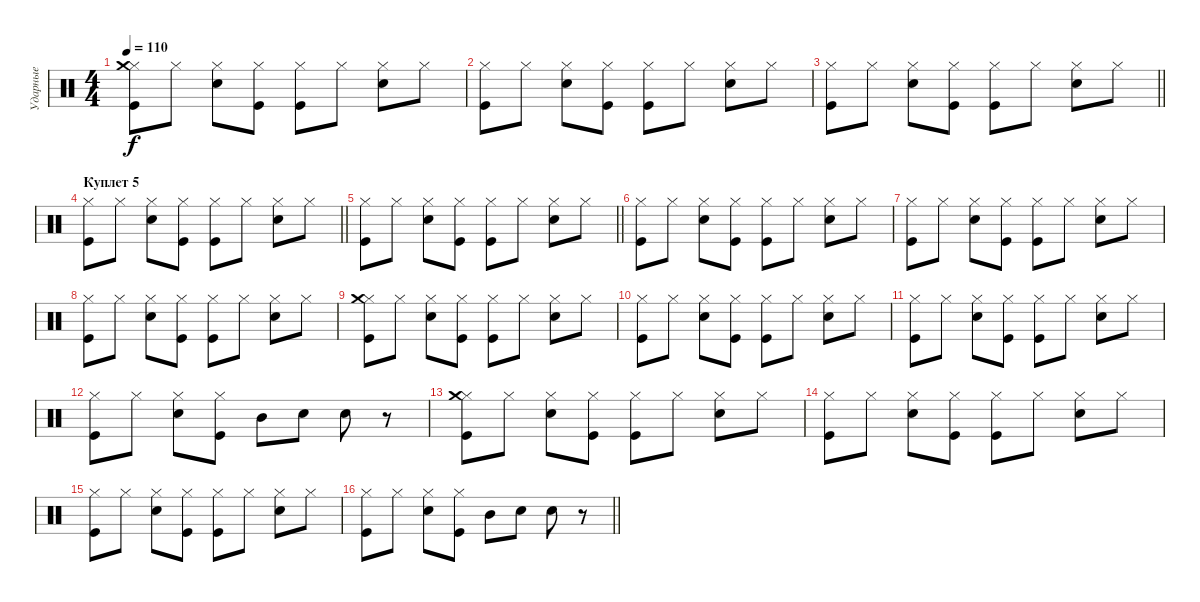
\track ("Ударные" "Ударные") {instrument percussion}
\staff {score}
\articulation defaults
\ts (4 4)
\tempo 110
\clef neutral
\ks c
("Kick (hit)" "Hi-Hat (closed)" "Crash medium (hit)").8{dy f} "Hi-Hat (closed)".8 ("Snare (hit) 2" "Hi-Hat (closed)").8 ("Kick (hit)" "Hi-Hat (closed)").8 ("Hi-Hat (closed)" "Kick (hit)").8 "Hi-Hat (closed)".8 ("Snare (hit) 2" "Hi-Hat (closed)").8 "Hi-Hat (closed)".8 |
("Kick (hit)" "Hi-Hat (closed)").8 "Hi-Hat (closed)".8 ("Snare (hit) 2" "Hi-Hat (closed)").8 ("Kick (hit)" "Hi-Hat (closed)").8 ("Hi-Hat (closed)" "Kick (hit)").8 "Hi-Hat (closed)".8 ("Snare (hit) 2" "Hi-Hat (closed)").8 "Hi-Hat (closed)".8 |
\barLineRight lightlight
("Kick (hit)" "Hi-Hat (closed)").8 "Hi-Hat (closed)".8 ("Snare (hit) 2" "Hi-Hat (closed)").8 ("Kick (hit)" "Hi-Hat (closed)").8 ("Hi-Hat (closed)" "Kick (hit)").8 "Hi-Hat (closed)".8 ("Snare (hit) 2" "Hi-Hat (closed)").8 "Hi-Hat (closed)".8 |
\section ("" "Куплет 5")
\barLineRight lightlight
("Kick (hit)" "Hi-Hat (closed)").8 "Hi-Hat (closed)".8 ("Snare (hit) 2" "Hi-Hat (closed)").8 ("Kick (hit)" "Hi-Hat (closed)").8 ("Hi-Hat (closed)" "Kick (hit)").8 "Hi-Hat (closed)".8 ("Snare (hit) 2" "Hi-Hat (closed)").8 "Hi-Hat (closed)".8 |
\barLineRight lightlight
("Kick (hit)" "Hi-Hat (closed)").8 "Hi-Hat (closed)".8 ("Snare (hit) 2" "Hi-Hat (closed)").8 ("Kick (hit)" "Hi-Hat (closed)").8 ("Hi-Hat (closed)" "Kick (hit)").8 "Hi-Hat (closed)".8 ("Snare (hit) 2" "Hi-Hat (closed)").8 "Hi-Hat (closed)".8 |
("Kick (hit)" "Hi-Hat (closed)").8 "Hi-Hat (closed)".8 ("Snare (hit) 2" "Hi-Hat (closed)").8 ("Kick (hit)" "Hi-Hat (closed)").8 ("Hi-Hat (closed)" "Kick (hit)").8 "Hi-Hat (closed)".8 ("Snare (hit) 2" "Hi-Hat (closed)").8 "Hi-Hat (closed)".8 |
("Kick (hit)" "Hi-Hat (closed)").8 "Hi-Hat (closed)".8 ("Snare (hit) 2" "Hi-Hat (closed)").8 ("Kick (hit)" "Hi-Hat (closed)").8 ("Hi-Hat (closed)" "Kick (hit)").8 "Hi-Hat (closed)".8 ("Snare (hit) 2" "Hi-Hat (closed)").8 "Hi-Hat (closed)".8 |
("Kick (hit)" "Hi-Hat (closed)").8 "Hi-Hat (closed)".8 ("Snare (hit) 2" "Hi-Hat (closed)").8 ("Kick (hit)" "Hi-Hat (closed)").8 ("Hi-Hat (closed)" "Kick (hit)").8 "Hi-Hat (closed)".8 ("Snare (hit) 2" "Hi-Hat (closed)").8 "Hi-Hat (closed)".8 |
("Kick (hit)" "Hi-Hat (closed)" "Crash medium (hit)").8 "Hi-Hat (closed)".8 ("Snare (hit) 2" "Hi-Hat (closed)").8 ("Kick (hit)" "Hi-Hat (closed)").8 ("Hi-Hat (closed)" "Kick (hit)").8 "Hi-Hat (closed)".8 ("Snare (hit) 2" "Hi-Hat (closed)").8 "Hi-Hat (closed)".8 |
("Kick (hit)" "Hi-Hat (closed)").8 "Hi-Hat (closed)".8 ("Snare (hit) 2" "Hi-Hat (closed)").8 ("Kick (hit)" "Hi-Hat (closed)").8 ("Hi-Hat (closed)" "Kick (hit)").8 "Hi-Hat (closed)".8 ("Snare (hit) 2" "Hi-Hat (closed)").8 "Hi-Hat (closed)".8 |
("Kick (hit)" "Hi-Hat (closed)").8 "Hi-Hat (closed)".8 ("Snare (hit) 2" "Hi-Hat (closed)").8 ("Kick (hit)" "Hi-Hat (closed)").8 ("Hi-Hat (closed)" "Kick (hit)").8 "Hi-Hat (closed)".8 ("Snare (hit) 2" "Hi-Hat (closed)").8 "Hi-Hat (closed)".8 |
("Kick (hit)" "Hi-Hat (closed)").8 "Hi-Hat (closed)".8 ("Snare (hit) 2" "Hi-Hat (closed)").8 ("Kick (hit)" "Hi-Hat (closed)").8 "Mid Tom (hit)".8 "Snare (hit) 2".8 "Snare (hit) 2".8 r.8 |
("Kick (hit)" "Hi-Hat (closed)" "Crash medium (hit)").8 "Hi-Hat (closed)".8 ("Snare (hit) 2" "Hi-Hat (closed)").8 ("Kick (hit)" "Hi-Hat (closed)").8 ("Hi-Hat (closed)" "Kick (hit)").8 "Hi-Hat (closed)".8 ("Snare (hit) 2" "Hi-Hat (closed)").8 "Hi-Hat (closed)".8 |
("Kick (hit)" "Hi-Hat (closed)").8 "Hi-Hat (closed)".8 ("Snare (hit) 2" "Hi-Hat (closed)").8 ("Kick (hit)" "Hi-Hat (closed)").8 ("Hi-Hat (closed)" "Kick (hit)").8 "Hi-Hat (closed)".8 ("Snare (hit) 2" "Hi-Hat (closed)").8 "Hi-Hat (closed)".8 |
("Kick (hit)" "Hi-Hat (closed)").8 "Hi-Hat (closed)".8 ("Snare (hit) 2" "Hi-Hat (closed)").8 ("Kick (hit)" "Hi-Hat (closed)").8 ("Hi-Hat (closed)" "Kick (hit)").8 "Hi-Hat (closed)".8 ("Snare (hit) 2" "Hi-Hat (closed)").8 "Hi-Hat (closed)".8 |
\barLineRight lightlight
("Kick (hit)" "Hi-Hat (closed)").8 "Hi-Hat (closed)".8 ("Snare (hit) 2" "Hi-Hat (closed)").8 ("Kick (hit)" "Hi-Hat (closed)").8 "Mid Tom (hit)".8 "Snare (hit) 2".8 "Snare (hit) 2".8 r.8
